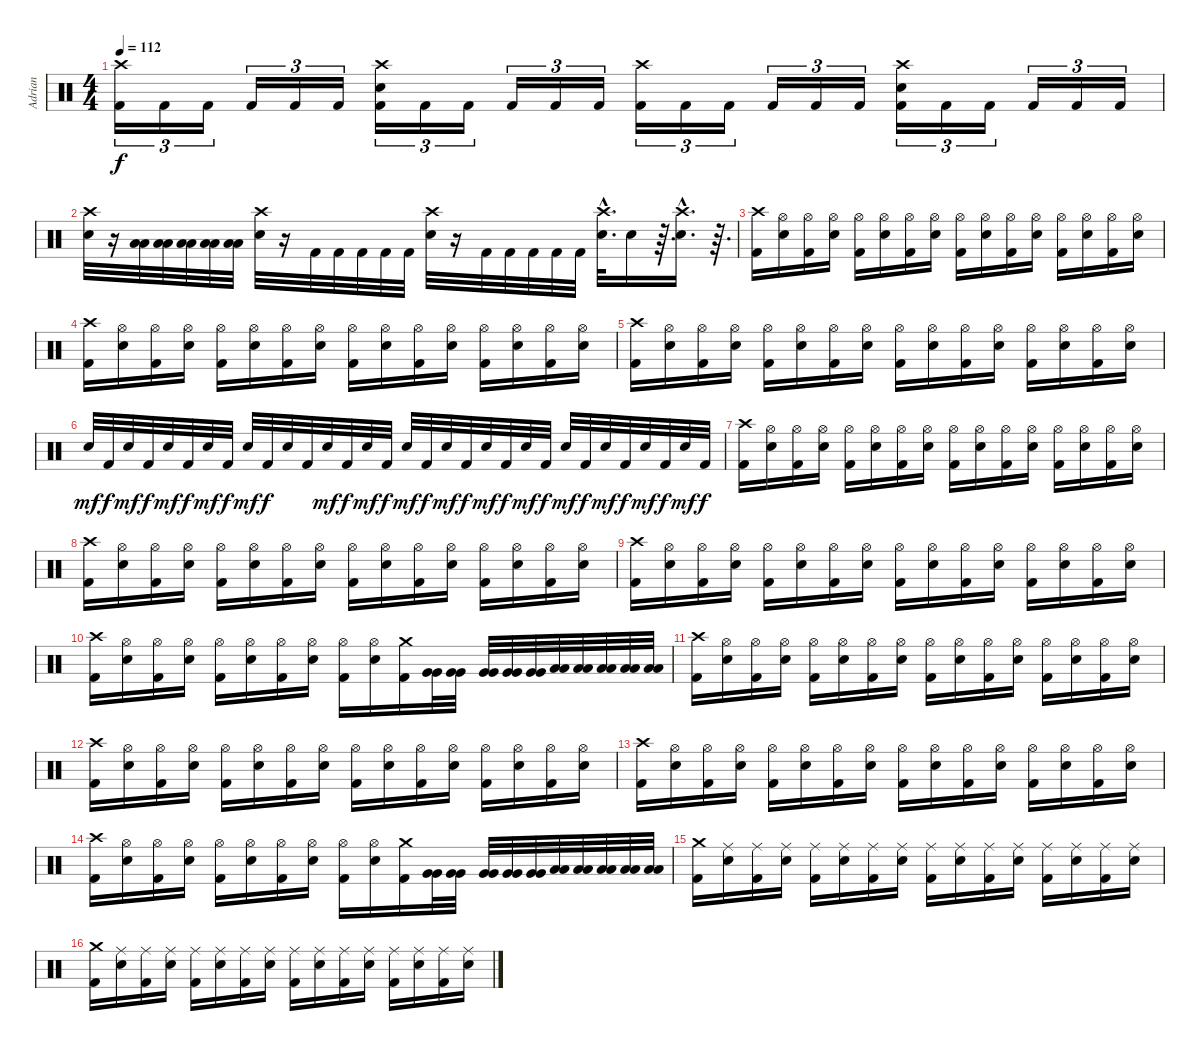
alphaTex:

\track ("Adrian" "Adrian") {instrument percussion}
\staff {score}
\articulation defaults
\ts (4 4)
\tempo 112
\clef neutral
\ks c
("Crash high (hit)" "Kick (hit) 2").16{tu (3 2) dy f} "Kick (hit) 2".16{tu (3 2)} "Kick (hit) 2".16{tu (3 2)} "Kick (hit) 2".16{tu (3 2)} "Kick (hit) 2".16{tu (3 2)} "Kick (hit) 2".16{tu (3 2)} ("Crash high (hit)" "Snare (hit) 2" "Kick (hit) 2").16{tu (3 2)} "Kick (hit) 2".16{tu (3 2)} "Kick (hit) 2".16{tu (3 2)} "Kick (hit) 2".16{tu (3 2)} "Kick (hit) 2".16{tu (3 2)} "Kick (hit) 2".16{tu (3 2)} ("Crash high (hit)" "Kick (hit) 2").16{tu (3 2)} "Kick (hit) 2".16{tu (3 2)} "Kick (hit) 2".16{tu (3 2)} "Kick (hit) 2".16{tu (3 2)} "Kick (hit) 2".16{tu (3 2)} "Kick (hit) 2".16{tu (3 2)} ("Crash high (hit)" "Snare (hit) 2" "Kick (hit) 2").16{tu (3 2)} "Kick (hit) 2".16{tu (3 2)} "Kick (hit) 2".16{tu (3 2)} "Kick (hit) 2".16{tu (3 2)} "Kick (hit) 2".16{tu (3 2)} "Kick (hit) 2".16{tu (3 2)} |
("Crash high (hit)" "Snare (hit) 2").32 r.16 ("Low Floor Tom (hit)" "Low Floor Tom (hit)").32 ("Low Floor Tom (hit)" "Low Floor Tom (hit)").32 ("Low Floor Tom (hit)" "Low Floor Tom (hit)").32 ("Low Floor Tom (hit)" "Low Floor Tom (hit)").32 ("Low Floor Tom (hit)" "Low Floor Tom (hit)").32 ("Crash high (hit)" "Snare (hit) 2").32 r.16 "Kick (hit) 2".32 "Kick (hit) 2".32 "Kick (hit) 2".32 "Kick (hit) 2".32 "Kick (hit) 2".32 ("Crash high (hit)" "Snare (hit) 2").32 r.16 "Kick (hit) 2".32 "Kick (hit) 2".32 "Kick (hit) 2".32 "Kick (hit) 2".32 "Kick (hit) 2".32 ("Crash high (hit)"{hac} "Snare (hit) 2"{hac}).32{d} "Snare (hit) 2".16 r.64{d} ("Crash high (hit)"{hac} "Snare (hit) 2"{hac}).16{d} r.64{d} |
("Crash high (hit)" "Kick (hit) 2").16 ("Hi-Hat (open)" "Snare (hit) 2").16 ("Hi-Hat (open)" "Kick (hit) 2").16 ("Hi-Hat (open)" "Snare (hit) 2").16 ("Hi-Hat (open)" "Kick (hit) 2").16 ("Hi-Hat (open)" "Snare (hit) 2").16 ("Hi-Hat (open)" "Kick (hit) 2").16 ("Hi-Hat (open)" "Snare (hit) 2").16 ("Hi-Hat (open)" "Kick (hit) 2").16 ("Hi-Hat (open)" "Snare (hit) 2").16 ("Hi-Hat (open)" "Kick (hit) 2").16 ("Hi-Hat (open)" "Snare (hit) 2").16 ("Hi-Hat (open)" "Kick (hit) 2").16 ("Hi-Hat (open)" "Snare (hit) 2").16 ("Hi-Hat (open)" "Kick (hit) 2").16 ("Hi-Hat (open)" "Snare (hit) 2").16 |
("Crash high (hit)" "Kick (hit) 2").16 ("Hi-Hat (open)" "Snare (hit) 2").16 ("Hi-Hat (open)" "Kick (hit) 2").16 ("Hi-Hat (open)" "Snare (hit) 2").16 ("Hi-Hat (open)" "Kick (hit) 2").16 ("Hi-Hat (open)" "Snare (hit) 2").16 ("Hi-Hat (open)" "Kick (hit) 2").16 ("Hi-Hat (open)" "Snare (hit) 2").16 ("Hi-Hat (open)" "Kick (hit) 2").16 ("Hi-Hat (open)" "Snare (hit) 2").16 ("Hi-Hat (open)" "Kick (hit) 2").16 ("Hi-Hat (open)" "Snare (hit) 2").16 ("Hi-Hat (open)" "Kick (hit) 2").16 ("Hi-Hat (open)" "Snare (hit) 2").16 ("Hi-Hat (open)" "Kick (hit) 2").16 ("Hi-Hat (open)" "Snare (hit) 2").16 |
("Crash high (hit)" "Kick (hit) 2").16 ("Hi-Hat (open)" "Snare (hit) 2").16 ("Hi-Hat (open)" "Kick (hit) 2").16 ("Hi-Hat (open)" "Snare (hit) 2").16 ("Hi-Hat (open)" "Kick (hit) 2").16 ("Hi-Hat (open)" "Snare (hit) 2").16 ("Hi-Hat (open)" "Kick (hit) 2").16 ("Hi-Hat (open)" "Snare (hit) 2").16 ("Hi-Hat (open)" "Kick (hit) 2").16 ("Hi-Hat (open)" "Snare (hit) 2").16 ("Hi-Hat (open)" "Kick (hit) 2").16 ("Hi-Hat (open)" "Snare (hit) 2").16 ("Hi-Hat (open)" "Kick (hit) 2").16 ("Hi-Hat (open)" "Snare (hit) 2").16 ("Hi-Hat (open)" "Kick (hit) 2").16 ("Hi-Hat (open)" "Snare (hit) 2").16 |
"Snare (hit) 2".32{dy mf} "Kick (hit) 2".32{dy f} "Snare (hit) 2".32{dy mf} "Kick (hit) 2".32{dy f} "Snare (hit) 2".32{dy mf} "Kick (hit) 2".32{dy f} "Snare (hit) 2".32{dy mf} "Kick (hit) 2".32{dy f} "Snare (hit) 2".32{dy mf} "Kick (hit) 2".32{dy f} "Snare (hit) 2".32 "Kick (hit) 2".32 "Snare (hit) 2".32{dy mf} "Kick (hit) 2".32{dy f} "Snare (hit) 2".32{dy mf} "Kick (hit) 2".32{dy f} "Snare (hit) 2".32{dy mf} "Kick (hit) 2".32{dy f} "Snare (hit) 2".32{dy mf} "Kick (hit) 2".32{dy f} "Snare (hit) 2".32{dy mf} "Kick (hit) 2".32{dy f} "Snare (hit) 2".32{dy mf} "Kick (hit) 2".32{dy f} "Snare (hit) 2".32{dy mf} "Kick (hit) 2".32{dy f} "Snare (hit) 2".32{dy mf} "Kick (hit) 2".32{dy f} "Snare (hit) 2".32{dy mf} "Kick (hit) 2".32{dy f} "Snare (hit) 2".32{dy mf} "Kick (hit) 2".32{dy f} |
("Crash high (hit)" "Kick (hit) 2").16 ("Hi-Hat (open)" "Snare (hit) 2").16 ("Hi-Hat (open)" "Kick (hit) 2").16 ("Hi-Hat (open)" "Snare (hit) 2").16 ("Hi-Hat (open)" "Kick (hit) 2").16 ("Hi-Hat (open)" "Snare (hit) 2").16 ("Hi-Hat (open)" "Kick (hit) 2").16 ("Hi-Hat (open)" "Snare (hit) 2").16 ("Hi-Hat (open)" "Kick (hit) 2").16 ("Hi-Hat (open)" "Snare (hit) 2").16 ("Hi-Hat (open)" "Kick (hit) 2").16 ("Hi-Hat (open)" "Snare (hit) 2").16 ("Hi-Hat (open)" "Kick (hit) 2").16 ("Hi-Hat (open)" "Snare (hit) 2").16 ("Hi-Hat (open)" "Kick (hit) 2").16 ("Hi-Hat (open)" "Snare (hit) 2").16 |
("Crash high (hit)" "Kick (hit) 2").16 ("Hi-Hat (open)" "Snare (hit) 2").16 ("Hi-Hat (open)" "Kick (hit) 2").16 ("Hi-Hat (open)" "Snare (hit) 2").16 ("Hi-Hat (open)" "Kick (hit) 2").16 ("Hi-Hat (open)" "Snare (hit) 2").16 ("Hi-Hat (open)" "Kick (hit) 2").16 ("Hi-Hat (open)" "Snare (hit) 2").16 ("Hi-Hat (open)" "Kick (hit) 2").16 ("Hi-Hat (open)" "Snare (hit) 2").16 ("Hi-Hat (open)" "Kick (hit) 2").16 ("Hi-Hat (open)" "Snare (hit) 2").16 ("Hi-Hat (open)" "Kick (hit) 2").16 ("Hi-Hat (open)" "Snare (hit) 2").16 ("Hi-Hat (open)" "Kick (hit) 2").16 ("Hi-Hat (open)" "Snare (hit) 2").16 |
("Crash high (hit)" "Kick (hit) 2").16 ("Hi-Hat (open)" "Snare (hit) 2").16 ("Hi-Hat (open)" "Kick (hit) 2").16 ("Hi-Hat (open)" "Snare (hit) 2").16 ("Hi-Hat (open)" "Kick (hit) 2").16 ("Hi-Hat (open)" "Snare (hit) 2").16 ("Hi-Hat (open)" "Kick (hit) 2").16 ("Hi-Hat (open)" "Snare (hit) 2").16 ("Hi-Hat (open)" "Kick (hit) 2").16 ("Hi-Hat (open)" "Snare (hit) 2").16 ("Hi-Hat (open)" "Kick (hit) 2").16 ("Hi-Hat (open)" "Snare (hit) 2").16 ("Hi-Hat (open)" "Kick (hit) 2").16 ("Hi-Hat (open)" "Snare (hit) 2").16 ("Hi-Hat (open)" "Kick (hit) 2").16 ("Hi-Hat (open)" "Snare (hit) 2").16 |
("Crash high (hit)" "Kick (hit) 2").16 ("Hi-Hat (open)" "Snare (hit) 2").16 ("Hi-Hat (open)" "Kick (hit) 2").16 ("Hi-Hat (open)" "Snare (hit) 2").16 ("Hi-Hat (open)" "Kick (hit) 2").16 ("Hi-Hat (open)" "Snare (hit) 2").16 ("Hi-Hat (open)" "Kick (hit) 2").16 ("Hi-Hat (open)" "Snare (hit) 2").16 ("Hi-Hat (open)" "Kick (hit) 2").16 ("Hi-Hat (open)" "Snare (hit) 2").16 ("Crash medium (hit)" "Kick (hit) 2").16 ("Very Low Tom (hit)" "Very Low Tom (hit)").32 ("Very Low Tom (hit)" "Very Low Tom (hit)").32 ("Very Low Tom (hit)" "Very Low Tom (hit)").32 ("Very Low Tom (hit)" "Very Low Tom (hit)").32 ("Very Low Tom (hit)" "Very Low Tom (hit)").32 ("Low Floor Tom (hit)" "Low Floor Tom (hit)").32 ("Low Floor Tom (hit)" "Low Floor Tom (hit)").32 ("Low Floor Tom (hit)" "Low Floor Tom (hit)").32 ("Low Floor Tom (hit)" "Low Floor Tom (hit)").32 ("Low Floor Tom (hit)" "Low Floor Tom (hit)").32 |
("Crash high (hit)" "Kick (hit) 2").16 ("Hi-Hat (open)" "Snare (hit) 2").16 ("Hi-Hat (open)" "Kick (hit) 2").16 ("Hi-Hat (open)" "Snare (hit) 2").16 ("Hi-Hat (open)" "Kick (hit) 2").16 ("Hi-Hat (open)" "Snare (hit) 2").16 ("Hi-Hat (open)" "Kick (hit) 2").16 ("Hi-Hat (open)" "Snare (hit) 2").16 ("Hi-Hat (open)" "Kick (hit) 2").16 ("Hi-Hat (open)" "Snare (hit) 2").16 ("Hi-Hat (open)" "Kick (hit) 2").16 ("Hi-Hat (open)" "Snare (hit) 2").16 ("Hi-Hat (open)" "Kick (hit) 2").16 ("Hi-Hat (open)" "Snare (hit) 2").16 ("Hi-Hat (open)" "Kick (hit) 2").16 ("Hi-Hat (open)" "Snare (hit) 2").16 |
("Crash high (hit)" "Kick (hit) 2").16 ("Hi-Hat (open)" "Snare (hit) 2").16 ("Hi-Hat (open)" "Kick (hit) 2").16 ("Hi-Hat (open)" "Snare (hit) 2").16 ("Hi-Hat (open)" "Kick (hit) 2").16 ("Hi-Hat (open)" "Snare (hit) 2").16 ("Hi-Hat (open)" "Kick (hit) 2").16 ("Hi-Hat (open)" "Snare (hit) 2").16 ("Hi-Hat (open)" "Kick (hit) 2").16 ("Hi-Hat (open)" "Snare (hit) 2").16 ("Hi-Hat (open)" "Kick (hit) 2").16 ("Hi-Hat (open)" "Snare (hit) 2").16 ("Hi-Hat (open)" "Kick (hit) 2").16 ("Hi-Hat (open)" "Snare (hit) 2").16 ("Hi-Hat (open)" "Kick (hit) 2").16 ("Hi-Hat (open)" "Snare (hit) 2").16 |
("Crash high (hit)" "Kick (hit) 2").16 ("Hi-Hat (open)" "Snare (hit) 2").16 ("Hi-Hat (open)" "Kick (hit) 2").16 ("Hi-Hat (open)" "Snare (hit) 2").16 ("Hi-Hat (open)" "Kick (hit) 2").16 ("Hi-Hat (open)" "Snare (hit) 2").16 ("Hi-Hat (open)" "Kick (hit) 2").16 ("Hi-Hat (open)" "Snare (hit) 2").16 ("Hi-Hat (open)" "Kick (hit) 2").16 ("Hi-Hat (open)" "Snare (hit) 2").16 ("Hi-Hat (open)" "Kick (hit) 2").16 ("Hi-Hat (open)" "Snare (hit) 2").16 ("Hi-Hat (open)" "Kick (hit) 2").16 ("Hi-Hat (open)" "Snare (hit) 2").16 ("Hi-Hat (open)" "Kick (hit) 2").16 ("Hi-Hat (open)" "Snare (hit) 2").16 |
("Crash high (hit)" "Kick (hit) 2").16 ("Hi-Hat (open)" "Snare (hit) 2").16 ("Hi-Hat (open)" "Kick (hit) 2").16 ("Hi-Hat (open)" "Snare (hit) 2").16 ("Hi-Hat (open)" "Kick (hit) 2").16 ("Hi-Hat (open)" "Snare (hit) 2").16 ("Hi-Hat (open)" "Kick (hit) 2").16 ("Hi-Hat (open)" "Snare (hit) 2").16 ("Hi-Hat (open)" "Kick (hit) 2").16 ("Hi-Hat (open)" "Snare (hit) 2").16 ("Crash medium (hit)" "Kick (hit) 2").16 ("Very Low Tom (hit)" "Very Low Tom (hit)").32 ("Very Low Tom (hit)" "Very Low Tom (hit)").32 ("Very Low Tom (hit)" "Very Low Tom (hit)").32 ("Very Low Tom (hit)" "Very Low Tom (hit)").32 ("Very Low Tom (hit)" "Very Low Tom (hit)").32 ("Low Floor Tom (hit)" "Low Floor Tom (hit)").32 ("Low Floor Tom (hit)" "Low Floor Tom (hit)").32 ("Low Floor Tom (hit)" "Low Floor Tom (hit)").32 ("Low Floor Tom (hit)" "Low Floor Tom (hit)").32 ("Low Floor Tom (hit)" "Low Floor Tom (hit)").32 |
("Crash medium (hit)" "Kick (hit) 2").16 ("Ride (middle)" "Snare (hit) 2").16 ("Ride (middle)" "Kick (hit) 2").16 ("Ride (middle)" "Snare (hit) 2").16 ("Ride (middle)" "Kick (hit) 2").16 ("Ride (middle)" "Snare (hit) 2").16 ("Ride (middle)" "Kick (hit) 2").16 ("Ride (middle)" "Snare (hit) 2").16 ("Ride (middle)" "Kick (hit) 2").16 ("Ride (middle)" "Snare (hit) 2").16 ("Ride (middle)" "Kick (hit) 2").16 ("Ride (middle)" "Snare (hit) 2").16 ("Ride (middle)" "Kick (hit) 2").16 ("Ride (middle)" "Snare (hit) 2").16 ("Ride (middle)" "Kick (hit) 2").16 ("Ride (middle)" "Snare (hit) 2").16 |
("Crash medium (hit)" "Kick (hit) 2").16 ("Ride (middle)" "Snare (hit) 2").16 ("Ride (middle)" "Kick (hit) 2").16 ("Ride (middle)" "Snare (hit) 2").16 ("Ride (middle)" "Kick (hit) 2").16 ("Ride (middle)" "Snare (hit) 2").16 ("Ride (middle)" "Kick (hit) 2").16 ("Ride (middle)" "Snare (hit) 2").16 ("Ride (middle)" "Kick (hit) 2").16 ("Ride (middle)" "Snare (hit) 2").16 ("Ride (middle)" "Kick (hit) 2").16 ("Ride (middle)" "Snare (hit) 2").16 ("Ride (middle)" "Kick (hit) 2").16 ("Ride (middle)" "Snare (hit) 2").16 ("Ride (middle)" "Kick (hit) 2").16 ("Ride (middle)" "Snare (hit) 2").16
